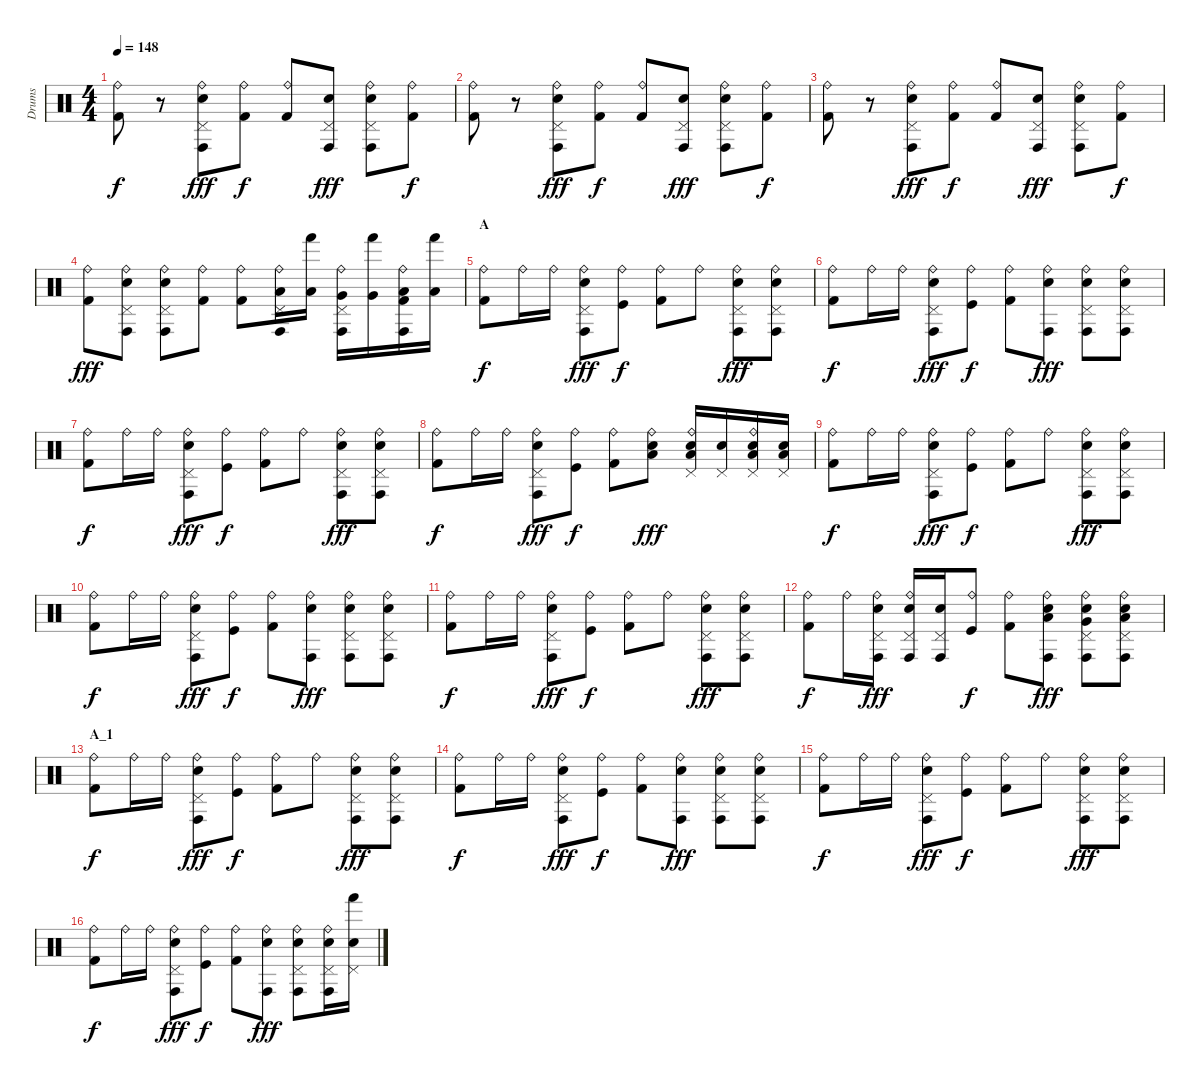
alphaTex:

\track ("Drums" "Drums") {instrument percussion}
\staff {score}
\articulation defaults
\ts (4 4)
\tempo 148
\clef neutral
\ks c
("Ride (bell)" "Kick (hit) 2").8{dy f} r.8 ("Ride (bell)" "Pedal Hi-Hat (hit)" "Conga high (hit)" "Electric Snare (hit)").8{dy fff} ("Ride (bell)" "Kick (hit) 2").8{dy f} ("Ride (bell)" "Kick (hit) 2").8 ("Pedal Hi-Hat (hit)" "Conga high (hit)" "Electric Snare (hit)").8{dy fff} ("Ride (bell)" "Pedal Hi-Hat (hit)" "Conga high (hit)" "Electric Snare (hit)").8 ("Ride (bell)" "Kick (hit) 2").8{dy f} |
("Ride (bell)" "Kick (hit) 2").8 r.8 ("Ride (bell)" "Pedal Hi-Hat (hit)" "Conga high (hit)" "Electric Snare (hit)").8{dy fff} ("Ride (bell)" "Kick (hit) 2").8{dy f} ("Ride (bell)" "Kick (hit) 2").8 ("Pedal Hi-Hat (hit)" "Conga high (hit)" "Electric Snare (hit)").8{dy fff} ("Ride (bell)" "Pedal Hi-Hat (hit)" "Conga high (hit)" "Electric Snare (hit)").8 ("Ride (bell)" "Kick (hit) 2").8{dy f} |
("Ride (bell)" "Kick (hit) 2").8 r.8 ("Ride (bell)" "Pedal Hi-Hat (hit)" "Conga high (hit)" "Electric Snare (hit)").8{dy fff} ("Ride (bell)" "Kick (hit) 2").8{dy f} ("Ride (bell)" "Kick (hit) 2").8 ("Pedal Hi-Hat (hit)" "Conga high (hit)" "Electric Snare (hit)").8{dy fff} ("Ride (bell)" "Pedal Hi-Hat (hit)" "Conga high (hit)" "Electric Snare (hit)").8 ("Ride (bell)" "Kick (hit) 2").8{dy f} |
("Ride (bell)" "Kick (hit) 2").8{dy fff} ("Ride (bell)" "Pedal Hi-Hat (hit)" "Conga high (hit)" "Electric Snare (hit)").8 ("Ride (bell)" "Pedal Hi-Hat (hit)" "Conga high (hit)" "Electric Snare (hit)").8 ("Ride (bell)" "Kick (hit) 2").8 ("Ride (bell)" "Kick (hit) 2").8 ("Ride (bell)" "Pedal Hi-Hat (hit)" "Conga high (hit)" "Low Tom (hit)").16 ("Hand (hit)" "Low Tom (hit)").16 ("Ride (bell)" "Pedal Hi-Hat (hit)" "Conga high (hit)" "Very Low Tom (hit)").16 ("Hand (hit)" "Very Low Tom (hit)").16 ("Ride (bell)" "Conga high (hit)" "Low Floor Tom (hit)" "Kick (hit) 2").16 ("Hand (hit)" "Low Floor Tom (hit)").16 |
\section ("" "A")
("Ride (bell)" "Kick (hit) 2").8{dy f} "Ride (bell)".16 "Ride (bell)".16 ("Ride (bell)" "Pedal Hi-Hat (hit)" "Conga high (hit)" "Electric Snare (hit)").8{dy fff} ("Ride (bell)" "Kick (hit)").8{dy f} ("Ride (bell)" "Kick (hit) 2").8 "Ride (bell)".8 ("Ride (bell)" "Pedal Hi-Hat (hit)" "Conga high (hit)" "Electric Snare (hit)").8{dy fff} ("Ride (bell)" "Pedal Hi-Hat (hit)" "Conga high (hit)" "Electric Snare (hit)").8 |
("Ride (bell)" "Kick (hit) 2").8{dy f} "Ride (bell)".16 "Ride (bell)".16 ("Ride (bell)" "Pedal Hi-Hat (hit)" "Conga high (hit)" "Electric Snare (hit)").8{dy fff} ("Ride (bell)" "Kick (hit)").8{dy f} ("Ride (bell)" "Kick (hit) 2").8 ("Ride (bell)" "Conga high (hit)" "Electric Snare (hit)").8{dy fff} ("Ride (bell)" "Pedal Hi-Hat (hit)" "Conga high (hit)" "Electric Snare (hit)").8 ("Ride (bell)" "Pedal Hi-Hat (hit)" "Conga high (hit)" "Electric Snare (hit)").8 |
("Ride (bell)" "Kick (hit) 2").8{dy f} "Ride (bell)".16 "Ride (bell)".16 ("Ride (bell)" "Pedal Hi-Hat (hit)" "Conga high (hit)" "Electric Snare (hit)").8{dy fff} ("Ride (bell)" "Kick (hit)").8{dy f} ("Ride (bell)" "Kick (hit) 2").8 "Ride (bell)".8 ("Ride (bell)" "Pedal Hi-Hat (hit)" "Conga high (hit)" "Electric Snare (hit)").8{dy fff} ("Ride (bell)" "Pedal Hi-Hat (hit)" "Conga high (hit)" "Electric Snare (hit)").8 |
("Ride (bell)" "Kick (hit) 2").8{dy f} "Ride (bell)".16 "Ride (bell)".16 ("Ride (bell)" "Pedal Hi-Hat (hit)" "Conga high (hit)" "Electric Snare (hit)").8{dy fff} ("Ride (bell)" "Kick (hit)").8{dy f} ("Ride (bell)" "Kick (hit) 2").8 ("Ride (bell)" "Low Floor Tom (hit)" "Electric Snare (hit)").8{dy fff} ("Ride (bell)" "Pedal Hi-Hat (hit)" "Low Floor Tom (hit)" "Electric Snare (hit)").16 ("Pedal Hi-Hat (hit)" "Electric Snare (hit)").16 ("Ride (bell)" "Pedal Hi-Hat (hit)" "Low Floor Tom (hit)" "Electric Snare (hit)").16 ("Pedal Hi-Hat (hit)" "Low Floor Tom (hit)" "Electric Snare (hit)").16 |
("Ride (bell)" "Kick (hit) 2").8{dy f} "Ride (bell)".16 "Ride (bell)".16 ("Ride (bell)" "Pedal Hi-Hat (hit)" "Conga high (hit)" "Electric Snare (hit)").8{dy fff} ("Ride (bell)" "Kick (hit)").8{dy f} ("Ride (bell)" "Kick (hit) 2").8 "Ride (bell)".8 ("Ride (bell)" "Pedal Hi-Hat (hit)" "Conga high (hit)" "Electric Snare (hit)").8{dy fff} ("Ride (bell)" "Pedal Hi-Hat (hit)" "Conga high (hit)" "Electric Snare (hit)").8 |
("Ride (bell)" "Kick (hit) 2").8{dy f} "Ride (bell)".16 "Ride (bell)".16 ("Ride (bell)" "Pedal Hi-Hat (hit)" "Conga high (hit)" "Electric Snare (hit)").8{dy fff} ("Ride (bell)" "Kick (hit)").8{dy f} ("Ride (bell)" "Kick (hit) 2").8 ("Ride (bell)" "Conga high (hit)" "Electric Snare (hit)").8{dy fff} ("Ride (bell)" "Pedal Hi-Hat (hit)" "Conga high (hit)" "Electric Snare (hit)").8 ("Ride (bell)" "Pedal Hi-Hat (hit)" "Conga high (hit)" "Electric Snare (hit)").8 |
("Ride (bell)" "Kick (hit) 2").8{dy f} "Ride (bell)".16 "Ride (bell)".16 ("Ride (bell)" "Pedal Hi-Hat (hit)" "Conga high (hit)" "Electric Snare (hit)").8{dy fff} ("Ride (bell)" "Kick (hit)").8{dy f} ("Ride (bell)" "Kick (hit) 2").8 "Ride (bell)".8 ("Ride (bell)" "Pedal Hi-Hat (hit)" "Conga high (hit)" "Electric Snare (hit)").8{dy fff} ("Ride (bell)" "Pedal Hi-Hat (hit)" "Conga high (hit)" "Electric Snare (hit)").8 |
("Ride (bell)" "Kick (hit) 2").8{dy f} "Ride (bell)".16 ("Ride (bell)" "Pedal Hi-Hat (hit)" "Conga high (hit)" "Electric Snare (hit)").16{dy fff} ("Ride (bell)" "Pedal Hi-Hat (hit)" "Conga high (hit)" "Electric Snare (hit)").16 ("Pedal Hi-Hat (hit)" "Conga high (hit)" "Electric Snare (hit)").16 ("Ride (bell)" "Kick (hit)").8{dy f} ("Ride (bell)" "Kick (hit) 2").8 ("Ride (bell)" "Electric Snare (hit)" "Conga high (hit)" "Low Tom (hit)").8{dy fff} ("Ride (bell)" "Pedal Hi-Hat (hit)" "Electric Snare (hit)" "Conga high (hit)" "Very Low Tom (hit)").8 ("Ride (bell)" "Pedal Hi-Hat (hit)" "Electric Snare (hit)" "Conga high (hit)" "Low Floor Tom (hit)").8 |
\section ("" "A_1")
("Ride (bell)" "Kick (hit) 2").8{dy f} "Ride (bell)".16 "Ride (bell)".16 ("Ride (bell)" "Pedal Hi-Hat (hit)" "Conga high (hit)" "Electric Snare (hit)").8{dy fff} ("Ride (bell)" "Kick (hit)").8{dy f} ("Ride (bell)" "Kick (hit) 2").8 "Ride (bell)".8 ("Ride (bell)" "Pedal Hi-Hat (hit)" "Conga high (hit)" "Electric Snare (hit)").8{dy fff} ("Ride (bell)" "Pedal Hi-Hat (hit)" "Conga high (hit)" "Electric Snare (hit)").8 |
("Ride (bell)" "Kick (hit) 2").8{dy f} "Ride (bell)".16 "Ride (bell)".16 ("Ride (bell)" "Pedal Hi-Hat (hit)" "Conga high (hit)" "Electric Snare (hit)").8{dy fff} ("Ride (bell)" "Kick (hit)").8{dy f} ("Ride (bell)" "Kick (hit) 2").8 ("Ride (bell)" "Conga high (hit)" "Electric Snare (hit)").8{dy fff} ("Ride (bell)" "Pedal Hi-Hat (hit)" "Conga high (hit)" "Electric Snare (hit)").8 ("Ride (bell)" "Pedal Hi-Hat (hit)" "Conga high (hit)" "Electric Snare (hit)").8 |
("Ride (bell)" "Kick (hit) 2").8{dy f} "Ride (bell)".16 "Ride (bell)".16 ("Ride (bell)" "Pedal Hi-Hat (hit)" "Conga high (hit)" "Electric Snare (hit)").8{dy fff} ("Ride (bell)" "Kick (hit)").8{dy f} ("Ride (bell)" "Kick (hit) 2").8 "Ride (bell)".8 ("Ride (bell)" "Pedal Hi-Hat (hit)" "Conga high (hit)" "Electric Snare (hit)").8{dy fff} ("Ride (bell)" "Pedal Hi-Hat (hit)" "Conga high (hit)" "Electric Snare (hit)").8 |
("Ride (bell)" "Kick (hit) 2").8{dy f} "Ride (bell)".16 "Ride (bell)".16 ("Ride (bell)" "Pedal Hi-Hat (hit)" "Conga high (hit)" "Electric Snare (hit)").8{dy fff} ("Ride (bell)" "Kick (hit)").8{dy f} ("Ride (bell)" "Kick (hit) 2").8 ("Ride (bell)" "Conga high (hit)" "Electric Snare (hit)").8{dy fff} ("Ride (bell)" "Pedal Hi-Hat (hit)" "Conga high (hit)" "Electric Snare (hit)").8 ("Ride (bell)" "Pedal Hi-Hat (hit)" "Conga high (hit)" "Electric Snare (hit)").16 ("Pedal Hi-Hat (hit)" "Hand (hit)" "Electric Snare (hit)").16
